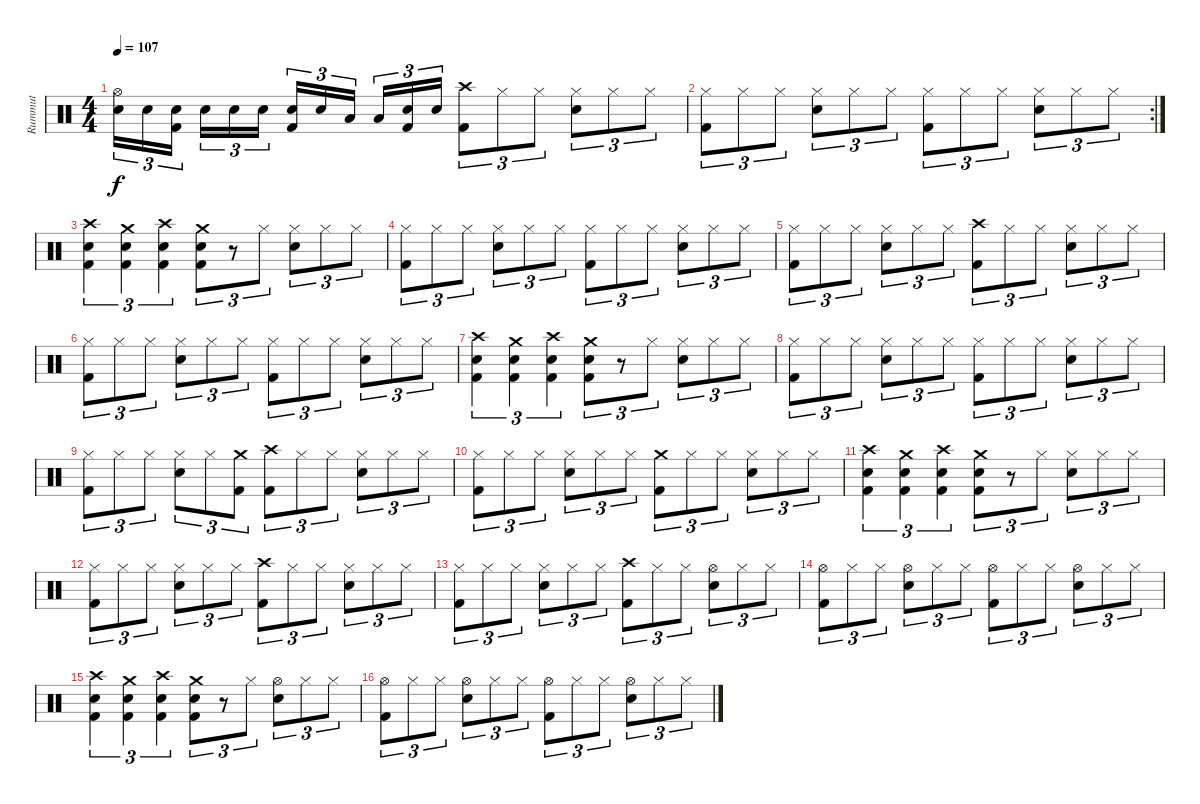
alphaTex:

\track ("Rummut" "Rummut") {instrument percussion}
\staff {score}
\articulation defaults
\ts (4 4)
\tempo 107
\clef neutral
\ks c
("Hi-Hat (open)" "Snare (hit) 2").16{tu (3 2) dy f} "Snare (hit)".16{tu (3 2)} ("Snare (hit)" "Kick (hit) 2").16{tu (3 2)} "Snare (hit)".16{tu (3 2)} "Snare (hit) 2".16{tu (3 2)} "Snare (hit)".16{tu (3 2)} ("Snare (hit)" "Kick (hit) 2").16{tu (3 2)} "Snare (hit)".16{tu (3 2)} "Low Tom (hit)".16{tu (3 2)} "Low Tom (hit)".16{tu (3 2)} ("Snare (hit)" "Kick (hit) 2").16{tu (3 2)} "Snare (hit)".16{tu (3 2)} ("Crash high (hit)" "Kick (hit) 2").8{tu (3 2)} "Hi-Hat (closed)".8{tu (3 2)} "Hi-Hat (closed)".8{tu (3 2)} ("Hi-Hat (closed)" "Snare (hit) 2").8{tu (3 2)} "Hi-Hat (closed)".8{tu (3 2)} "Hi-Hat (closed)".8{tu (3 2)} |
\rc 2
("Hi-Hat (closed)" "Kick (hit) 2").8{tu (3 2)} "Hi-Hat (closed)".8{tu (3 2)} "Hi-Hat (closed)".8{tu (3 2)} ("Hi-Hat (closed)" "Snare (hit) 2").8{tu (3 2)} "Hi-Hat (closed)".8{tu (3 2)} "Hi-Hat (closed)".8{tu (3 2)} ("Hi-Hat (closed)" "Kick (hit) 2").8{tu (3 2)} "Hi-Hat (closed)".8{tu (3 2)} "Hi-Hat (closed)".8{tu (3 2)} ("Hi-Hat (closed)" "Snare (hit) 2").8{tu (3 2)} "Hi-Hat (closed)".8{tu (3 2)} "Hi-Hat (closed)".8{tu (3 2)} |
("Crash high (hit)" "Snare (hit) 2" "Kick (hit) 2").4{tu (3 2)} ("Crash medium (hit)" "Snare (hit) 2" "Kick (hit) 2").4{tu (3 2)} ("Crash high (hit)" "Snare (hit) 2" "Kick (hit) 2").4{tu (3 2)} ("Crash medium (hit)" "Snare (hit) 2" "Kick (hit) 2").8{tu (3 2)} r.8{tu (3 2)} "Hi-Hat (closed)".8{tu (3 2)} ("Hi-Hat (closed)" "Snare (hit) 2").8{tu (3 2)} "Hi-Hat (closed)".8{tu (3 2)} "Hi-Hat (closed)".8{tu (3 2)} |
("Hi-Hat (closed)" "Kick (hit) 2").8{tu (3 2)} "Hi-Hat (closed)".8{tu (3 2)} "Hi-Hat (closed)".8{tu (3 2)} ("Hi-Hat (closed)" "Snare (hit) 2").8{tu (3 2)} "Hi-Hat (closed)".8{tu (3 2)} "Hi-Hat (closed)".8{tu (3 2)} ("Hi-Hat (closed)" "Kick (hit) 2").8{tu (3 2)} "Hi-Hat (closed)".8{tu (3 2)} "Hi-Hat (closed)".8{tu (3 2)} ("Hi-Hat (closed)" "Snare (hit) 2").8{tu (3 2)} "Hi-Hat (closed)".8{tu (3 2)} "Hi-Hat (closed)".8{tu (3 2)} |
("Hi-Hat (closed)" "Kick (hit) 2").8{tu (3 2)} "Hi-Hat (closed)".8{tu (3 2)} "Hi-Hat (closed)".8{tu (3 2)} ("Hi-Hat (closed)" "Snare (hit) 2").8{tu (3 2)} "Hi-Hat (closed)".8{tu (3 2)} "Hi-Hat (closed)".8{tu (3 2)} ("Crash high (hit)" "Kick (hit) 2").8{tu (3 2)} "Hi-Hat (closed)".8{tu (3 2)} "Hi-Hat (closed)".8{tu (3 2)} ("Hi-Hat (closed)" "Snare (hit) 2").8{tu (3 2)} "Hi-Hat (closed)".8{tu (3 2)} "Hi-Hat (closed)".8{tu (3 2)} |
("Hi-Hat (closed)" "Kick (hit) 2").8{tu (3 2)} "Hi-Hat (closed)".8{tu (3 2)} "Hi-Hat (closed)".8{tu (3 2)} ("Hi-Hat (closed)" "Snare (hit) 2").8{tu (3 2)} "Hi-Hat (closed)".8{tu (3 2)} "Hi-Hat (closed)".8{tu (3 2)} ("Hi-Hat (closed)" "Kick (hit) 2").8{tu (3 2)} "Hi-Hat (closed)".8{tu (3 2)} "Hi-Hat (closed)".8{tu (3 2)} ("Hi-Hat (closed)" "Snare (hit) 2").8{tu (3 2)} "Hi-Hat (closed)".8{tu (3 2)} "Hi-Hat (closed)".8{tu (3 2)} |
("Crash high (hit)" "Snare (hit) 2" "Kick (hit) 2").4{tu (3 2)} ("Crash medium (hit)" "Snare (hit) 2" "Kick (hit) 2").4{tu (3 2)} ("Crash high (hit)" "Snare (hit) 2" "Kick (hit) 2").4{tu (3 2)} ("Crash medium (hit)" "Snare (hit) 2" "Kick (hit) 2").8{tu (3 2)} r.8{tu (3 2)} "Hi-Hat (closed)".8{tu (3 2)} ("Hi-Hat (closed)" "Snare (hit) 2").8{tu (3 2)} "Hi-Hat (closed)".8{tu (3 2)} "Hi-Hat (closed)".8{tu (3 2)} |
("Hi-Hat (closed)" "Kick (hit) 2").8{tu (3 2)} "Hi-Hat (closed)".8{tu (3 2)} "Hi-Hat (closed)".8{tu (3 2)} ("Hi-Hat (closed)" "Snare (hit) 2").8{tu (3 2)} "Hi-Hat (closed)".8{tu (3 2)} "Hi-Hat (closed)".8{tu (3 2)} ("Hi-Hat (closed)" "Kick (hit) 2").8{tu (3 2)} "Hi-Hat (closed)".8{tu (3 2)} "Hi-Hat (closed)".8{tu (3 2)} ("Hi-Hat (closed)" "Snare (hit) 2").8{tu (3 2)} "Hi-Hat (closed)".8{tu (3 2)} "Hi-Hat (closed)".8{tu (3 2)} |
("Hi-Hat (closed)" "Kick (hit) 2").8{tu (3 2)} "Hi-Hat (closed)".8{tu (3 2)} "Hi-Hat (closed)".8{tu (3 2)} ("Hi-Hat (closed)" "Snare (hit) 2").8{tu (3 2)} "Hi-Hat (closed)".8{tu (3 2)} ("Crash medium (hit)" "Kick (hit) 2").8{tu (3 2)} ("Crash high (hit)" "Kick (hit) 2").8{tu (3 2)} "Hi-Hat (closed)".8{tu (3 2)} "Hi-Hat (closed)".8{tu (3 2)} ("Hi-Hat (closed)" "Snare (hit) 2").8{tu (3 2)} "Hi-Hat (closed)".8{tu (3 2)} "Hi-Hat (closed)".8{tu (3 2)} |
("Hi-Hat (closed)" "Kick (hit) 2").8{tu (3 2)} "Hi-Hat (closed)".8{tu (3 2)} "Hi-Hat (closed)".8{tu (3 2)} ("Hi-Hat (closed)" "Snare (hit) 2").8{tu (3 2)} "Hi-Hat (closed)".8{tu (3 2)} "Hi-Hat (closed)".8{tu (3 2)} ("Crash medium (hit)" "Kick (hit) 2").8{tu (3 2)} "Hi-Hat (closed)".8{tu (3 2)} "Hi-Hat (closed)".8{tu (3 2)} ("Hi-Hat (closed)" "Snare (hit) 2").8{tu (3 2)} "Hi-Hat (closed)".8{tu (3 2)} "Hi-Hat (closed)".8{tu (3 2)} |
("Crash high (hit)" "Snare (hit) 2" "Kick (hit) 2").4{tu (3 2)} ("Crash medium (hit)" "Snare (hit) 2" "Kick (hit) 2").4{tu (3 2)} ("Crash high (hit)" "Snare (hit) 2" "Kick (hit) 2").4{tu (3 2)} ("Crash medium (hit)" "Snare (hit) 2" "Kick (hit) 2").8{tu (3 2)} r.8{tu (3 2)} "Hi-Hat (closed)".8{tu (3 2)} ("Hi-Hat (closed)" "Snare (hit) 2").8{tu (3 2)} "Hi-Hat (closed)".8{tu (3 2)} "Hi-Hat (closed)".8{tu (3 2)} |
("Hi-Hat (closed)" "Kick (hit) 2").8{tu (3 2)} "Hi-Hat (closed)".8{tu (3 2)} "Hi-Hat (closed)".8{tu (3 2)} ("Hi-Hat (closed)" "Snare (hit) 2").8{tu (3 2)} "Hi-Hat (closed)".8{tu (3 2)} "Hi-Hat (closed)".8{tu (3 2)} ("Crash high (hit)" "Kick (hit) 2").8{tu (3 2)} "Hi-Hat (closed)".8{tu (3 2)} "Hi-Hat (closed)".8{tu (3 2)} ("Hi-Hat (closed)" "Snare (hit) 2").8{tu (3 2)} "Hi-Hat (closed)".8{tu (3 2)} "Hi-Hat (closed)".8{tu (3 2)} |
("Hi-Hat (closed)" "Kick (hit) 2").8{tu (3 2)} "Hi-Hat (closed)".8{tu (3 2)} "Hi-Hat (closed)".8{tu (3 2)} ("Hi-Hat (closed)" "Snare (hit) 2").8{tu (3 2)} "Hi-Hat (closed)".8{tu (3 2)} "Hi-Hat (closed)".8{tu (3 2)} ("Crash high (hit)" "Kick (hit) 2").8{tu (3 2)} "Hi-Hat (closed)".8{tu (3 2)} "Hi-Hat (closed)".8{tu (3 2)} ("Hi-Hat (open)" "Snare (hit) 2").8{tu (3 2)} "Hi-Hat (closed)".8{tu (3 2)} "Hi-Hat (closed)".8{tu (3 2)} |
("Hi-Hat (open)" "Kick (hit) 2").8{tu (3 2)} "Hi-Hat (closed)".8{tu (3 2)} "Hi-Hat (closed)".8{tu (3 2)} ("Hi-Hat (open)" "Snare (hit) 2").8{tu (3 2)} "Hi-Hat (closed)".8{tu (3 2)} "Hi-Hat (closed)".8{tu (3 2)} ("Hi-Hat (open)" "Kick (hit) 2").8{tu (3 2)} "Hi-Hat (closed)".8{tu (3 2)} "Hi-Hat (closed)".8{tu (3 2)} ("Hi-Hat (open)" "Snare (hit) 2").8{tu (3 2)} "Hi-Hat (closed)".8{tu (3 2)} "Hi-Hat (closed)".8{tu (3 2)} |
("Crash high (hit)" "Snare (hit) 2" "Kick (hit) 2").4{tu (3 2) volume 6} ("Crash medium (hit)" "Snare (hit) 2" "Kick (hit) 2").4{tu (3 2)} ("Crash high (hit)" "Snare (hit) 2" "Kick (hit) 2").4{tu (3 2)} ("Crash medium (hit)" "Snare (hit) 2" "Kick (hit) 2").8{tu (3 2)} r.8{tu (3 2)} "Hi-Hat (closed)".8{tu (3 2)} ("Hi-Hat (open)" "Snare (hit) 2").8{tu (3 2)} "Hi-Hat (closed)".8{tu (3 2)} "Hi-Hat (closed)".8{tu (3 2)} |
("Hi-Hat (open)" "Kick (hit) 2").8{tu (3 2)} "Hi-Hat (closed)".8{tu (3 2)} "Hi-Hat (closed)".8{tu (3 2)} ("Hi-Hat (open)" "Snare (hit) 2").8{tu (3 2)} "Hi-Hat (closed)".8{tu (3 2)} "Hi-Hat (closed)".8{tu (3 2)} ("Hi-Hat (open)" "Kick (hit) 2").8{tu (3 2)} "Hi-Hat (closed)".8{tu (3 2)} "Hi-Hat (closed)".8{tu (3 2)} ("Hi-Hat (open)" "Snare (hit) 2").8{tu (3 2)} "Hi-Hat (closed)".8{tu (3 2)} "Hi-Hat (closed)".8{tu (3 2)}
